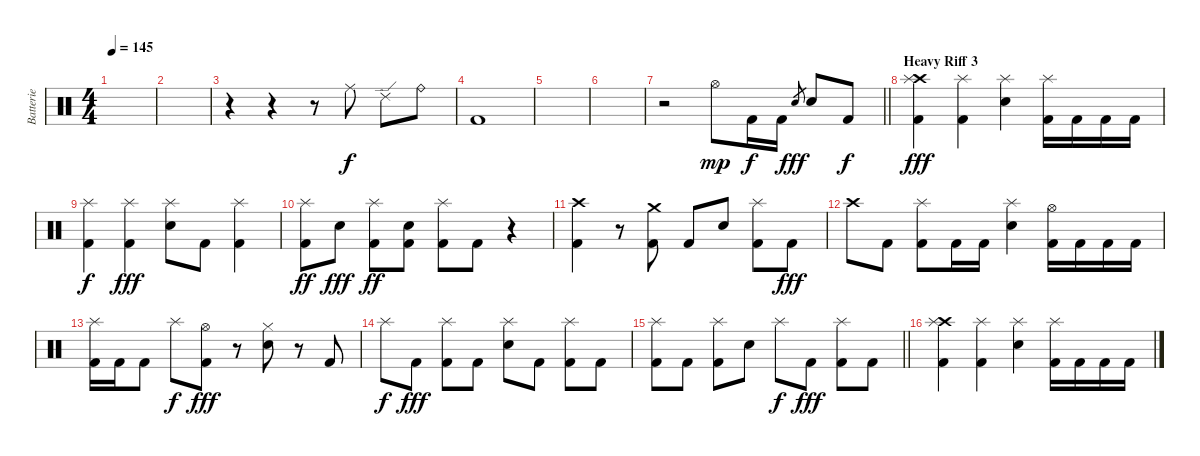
\track ("Batterie" "Batterie") {instrument percussion}
\staff {score}
\articulation defaults
\ts (4 4)
\tempo 145
\clef neutral
\ks c
|
|
r.4 r.4 r.8 "Ride (middle)".8{dy f} "Ride (edge) 2".8 "Ride (bell)".8 |
"Kick (hit) 2".1 |
|
|
\barLineRight lightlight
r.2 "Hi-Hat (open)".8{dy mp} "Kick (hit) 2".16{dy f} "Kick (hit) 2".16 "Electric Snare (hit)".8{gr dy fff} "Electric Snare (hit)".8 "Kick (hit) 2".8{dy f} |
\section ("" "Heavy Riff 3")
("Crash high (hit)" "Splash (hit)" "Kick (hit) 2").4{dy fff} ("Splash (hit)" "Kick (hit) 2").4 ("Splash (hit)" "Electric Snare (hit)").4 ("Splash (hit)" "Kick (hit) 2").16 "Kick (hit) 2".16 "Kick (hit) 2".16 "Kick (hit) 2".16 |
("Splash (hit)" "Kick (hit) 2").4{dy f} ("Splash (hit)" "Kick (hit) 2").4{dy fff} ("Splash (hit)" "Electric Snare (hit)").8 "Kick (hit) 2".8 ("Splash (hit)" "Kick (hit) 2").4 |
("Splash (hit)" "Kick (hit) 2").8{dy ff} "Electric Snare (hit)".8{dy fff} ("Splash (hit)" "Kick (hit) 2").8{dy ff} ("Electric Snare (hit)" "Kick (hit) 2").8 ("Splash (hit)" "Kick (hit) 2").8 "Kick (hit) 2".8 r.4 |
("Crash high (hit)" "Kick (hit) 2").4 r.8 ("Crash medium (hit)" "Kick (hit) 2").8 "Kick (hit) 2".8 "Electric Snare (hit)".8 ("Splash (hit)" "Kick (hit) 2").8 "Kick (hit) 2".8{dy fff} |
"Crash high (hit)".8 "Kick (hit) 2".8 ("Splash (hit)" "Kick (hit) 2").8 "Kick (hit) 2".16 "Kick (hit) 2".16 ("Splash (hit)" "Electric Snare (hit)").4 ("Hi-Hat (open)" "Kick (hit) 2").16 "Kick (hit) 2".16 "Kick (hit) 2".16 "Kick (hit) 2".16 |
("Splash (hit)" "Kick (hit) 2").16 "Kick (hit) 2".16 "Kick (hit) 2".8 "Splash (hit)".8{dy f} ("Hi-Hat (open)" "Kick (hit) 2").8{dy fff} r.8 ("Hi-Hat (closed)" "Electric Snare (hit)").8 r.8 "Kick (hit) 2".8 |
"Splash (hit)".8{dy f} "Kick (hit) 2".8{dy fff} ("Splash (hit)" "Kick (hit) 2").8 "Kick (hit) 2".8 ("Splash (hit)" "Electric Snare (hit)").8 "Kick (hit) 2".8 ("Splash (hit)" "Kick (hit) 2").8 "Kick (hit) 2".8 |
\barLineRight lightlight
("Splash (hit)" "Kick (hit) 2").8 "Kick (hit) 2".8 ("Splash (hit)" "Kick (hit) 2").8 "Electric Snare (hit)".8 "Splash (hit)".8{dy f} "Kick (hit) 2".8{dy fff} ("Splash (hit)" "Kick (hit) 2").8 "Kick (hit) 2".8 |
("Crash high (hit)" "Splash (hit)" "Kick (hit) 2").4 ("Splash (hit)" "Kick (hit) 2").4 ("Splash (hit)" "Electric Snare (hit)").4 ("Splash (hit)" "Kick (hit) 2").16 "Kick (hit) 2".16 "Kick (hit) 2".16 "Kick (hit) 2".16
